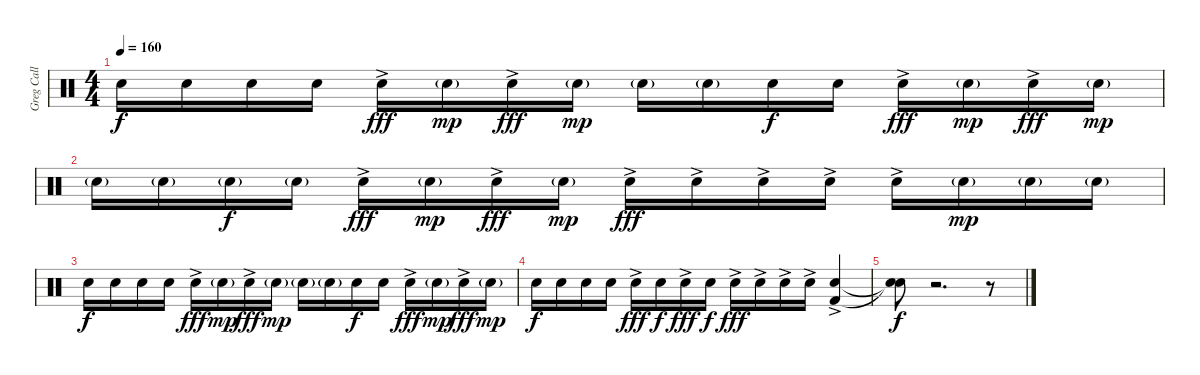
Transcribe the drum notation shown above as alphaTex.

\track ("Greg Call (Drums)" "Greg Call ") {instrument percussion}
\staff {score}
\articulation defaults
\ts (4 4)
\tempo 160
\clef neutral
\ks c "Electric Snare (hit)".16{dy f} "Electric Snare (hit)".16 "Electric Snare (hit)".16 "Electric Snare (hit)".16 "Electric Snare (hit)"{ac}.16{dy fff} "Electric Snare (hit)"{g}.16{dy mp} "Electric Snare (hit)"{ac}.16{dy fff} "Electric Snare (hit)"{g}.16{dy mp} "Electric Snare (hit)"{g}.16 "Electric Snare (hit)"{g}.16 "Electric Snare (hit)".16{dy f} "Electric Snare (hit)".16 "Electric Snare (hit)"{ac}.16{dy fff} "Electric Snare (hit)"{g}.16{dy mp} "Electric Snare (hit)"{ac}.16{dy fff} "Electric Snare (hit)"{g}.16{dy mp}
|
"Electric Snare (hit)"{g}.16 "Electric Snare (hit)"{g}.16 "Electric Snare (hit)"{g}.16{dy f} "Electric Snare (hit)"{g}.16 "Electric Snare (hit)"{ac}.16{dy fff} "Electric Snare (hit)"{g}.16{dy mp} "Electric Snare (hit)"{ac}.16{dy fff} "Electric Snare (hit)"{g}.16{dy mp} "Electric Snare (hit)"{ac}.16{dy fff} "Electric Snare (hit)"{ac}.16 "Electric Snare (hit)"{ac}.16 "Electric Snare (hit)"{ac}.16 "Electric Snare (hit)"{ac}.16 "Electric Snare (hit)"{g}.16{dy mp} "Electric Snare (hit)"{g}.16 "Electric Snare (hit)"{g}.16 |
"Electric Snare (hit)".16{dy f} "Electric Snare (hit)".16 "Electric Snare (hit)".16 "Electric Snare (hit)".16 "Electric Snare (hit)"{ac}.16{dy fff} "Electric Snare (hit)"{g}.16{dy mp} "Electric Snare (hit)"{ac}.16{dy fff} "Electric Snare (hit)"{g}.16{dy mp} "Electric Snare (hit)"{g}.16 "Electric Snare (hit)"{g}.16 "Electric Snare (hit)".16{dy f} "Electric Snare (hit)".16 "Electric Snare (hit)"{ac}.16{dy fff} "Electric Snare (hit)"{g}.16{dy mp} "Electric Snare (hit)"{ac}.16{dy fff} "Electric Snare (hit)"{g}.16{dy mp} |
"Electric Snare (hit)".16{dy f} "Electric Snare (hit)".16 "Electric Snare (hit)".16 "Electric Snare (hit)".16 "Electric Snare (hit)"{ac}.16{dy fff} "Electric Snare (hit)".16{dy f} "Electric Snare (hit)"{ac}.16{dy fff} "Electric Snare (hit)".16{dy f} "Electric Snare (hit)"{ac}.16{dy fff} "Electric Snare (hit)"{ac}.16 "Electric Snare (hit)"{ac}.16 "Electric Snare (hit)"{ac}.16 ("Electric Snare (hit)"{ac} "Kick (hit) 2"{ac}).4 |
("Snare (hit)"{t} "Snare (hit)"{t}).8{dy f} r.2{d} r.8
